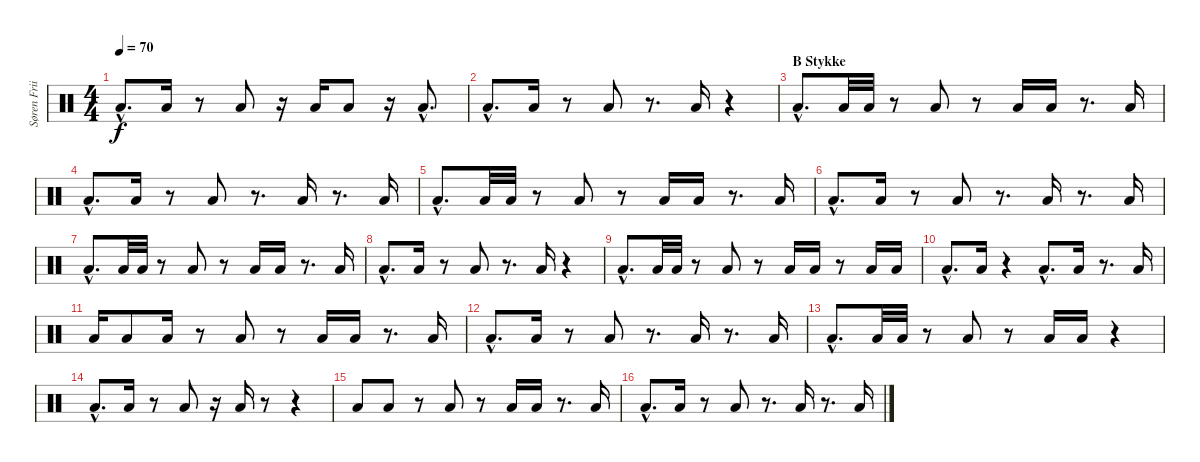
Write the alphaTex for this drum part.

\track ("Søren Friis (Floor Drum)" "Søren Frii") {instrument percussion}
\staff {score}
\articulation defaults
\ts (4 4)
\tempo 70
\clef neutral
\ks c "Low Floor Tom (hit)"{hac}.8{d dy f} "Low Floor Tom (hit)".16
r.8 "Low Floor Tom (hit)".8 r.16 "Low Floor Tom (hit)".16 "Low Floor Tom (hit)".8 r.16 "Low Floor Tom (hit)"{hac}.8{d} |
"Low Floor Tom (hit)"{hac}.8{d} "Low Floor Tom (hit)".16 r.8 "Low Floor Tom (hit)".8 r.8{d} "Low Floor Tom (hit)".16 r.4 |
\section ("" "B Stykke")
"Low Floor Tom (hit)"{hac}.8{d} "Low Floor Tom (hit)".32 "Low Floor Tom (hit)".32 r.8 "Low Floor Tom (hit)".8 r.8 "Low Floor Tom (hit)".16 "Low Floor Tom (hit)".16 r.8{d} "Low Floor Tom (hit)".16 |
"Low Floor Tom (hit)"{hac}.8{d} "Low Floor Tom (hit)".16 r.8 "Low Floor Tom (hit)".8 r.8{d} "Low Floor Tom (hit)".16 r.8{d} "Low Floor Tom (hit)".16 |
"Low Floor Tom (hit)"{hac}.8{d} "Low Floor Tom (hit)".32 "Low Floor Tom (hit)".32 r.8 "Low Floor Tom (hit)".8 r.8 "Low Floor Tom (hit)".16 "Low Floor Tom (hit)".16 r.8{d} "Low Floor Tom (hit)".16 |
"Low Floor Tom (hit)"{hac}.8{d} "Low Floor Tom (hit)".16 r.8 "Low Floor Tom (hit)".8 r.8{d} "Low Floor Tom (hit)".16 r.8{d} "Low Floor Tom (hit)".16 |
"Low Floor Tom (hit)"{hac}.8{d} "Low Floor Tom (hit)".32 "Low Floor Tom (hit)".32 r.8 "Low Floor Tom (hit)".8 r.8 "Low Floor Tom (hit)".16 "Low Floor Tom (hit)".16 r.8{d} "Low Floor Tom (hit)".16 |
"Low Floor Tom (hit)"{hac}.8{d} "Low Floor Tom (hit)".16 r.8 "Low Floor Tom (hit)".8 r.8{d} "Low Floor Tom (hit)".16 r.4 |
"Low Floor Tom (hit)"{hac}.8{d} "Low Floor Tom (hit)".32 "Low Floor Tom (hit)".32 r.8 "Low Floor Tom (hit)".8 r.8 "Low Floor Tom (hit)".16 "Low Floor Tom (hit)".16 r.8 "Low Floor Tom (hit)".16 "Low Floor Tom (hit)".16 |
"Low Floor Tom (hit)"{hac}.8{d} "Low Floor Tom (hit)".16 r.4 "Low Floor Tom (hit)"{hac}.8{d} "Low Floor Tom (hit)".16 r.8{d} "Low Floor Tom (hit)".16 |
"Low Floor Tom (hit)".16 "Low Floor Tom (hit)".8 "Low Floor Tom (hit)".16 r.8 "Low Floor Tom (hit)".8 r.8 "Low Floor Tom (hit)".16 "Low Floor Tom (hit)".16 r.8{d} "Low Floor Tom (hit)".16 |
"Low Floor Tom (hit)"{hac}.8{d} "Low Floor Tom (hit)".16 r.8 "Low Floor Tom (hit)".8 r.8{d} "Low Floor Tom (hit)".16 r.8{d} "Low Floor Tom (hit)".16 |
"Low Floor Tom (hit)"{hac}.8{d} "Low Floor Tom (hit)".32 "Low Floor Tom (hit)".32 r.8 "Low Floor Tom (hit)".8 r.8 "Low Floor Tom (hit)".16 "Low Floor Tom (hit)".16 r.4 |
"Low Floor Tom (hit)"{hac}.8{d} "Low Floor Tom (hit)".16 r.8 "Low Floor Tom (hit)".8 r.16 "Low Floor Tom (hit)".16 r.8 r.4 |
"Low Floor Tom (hit)".8 "Low Floor Tom (hit)".8 r.8 "Low Floor Tom (hit)".8 r.8 "Low Floor Tom (hit)".16 "Low Floor Tom (hit)".16 r.8{d} "Low Floor Tom (hit)".16 |
"Low Floor Tom (hit)"{hac}.8{d} "Low Floor Tom (hit)".16 r.8 "Low Floor Tom (hit)".8 r.8{d} "Low Floor Tom (hit)".16 r.8{d} "Low Floor Tom (hit)".16
